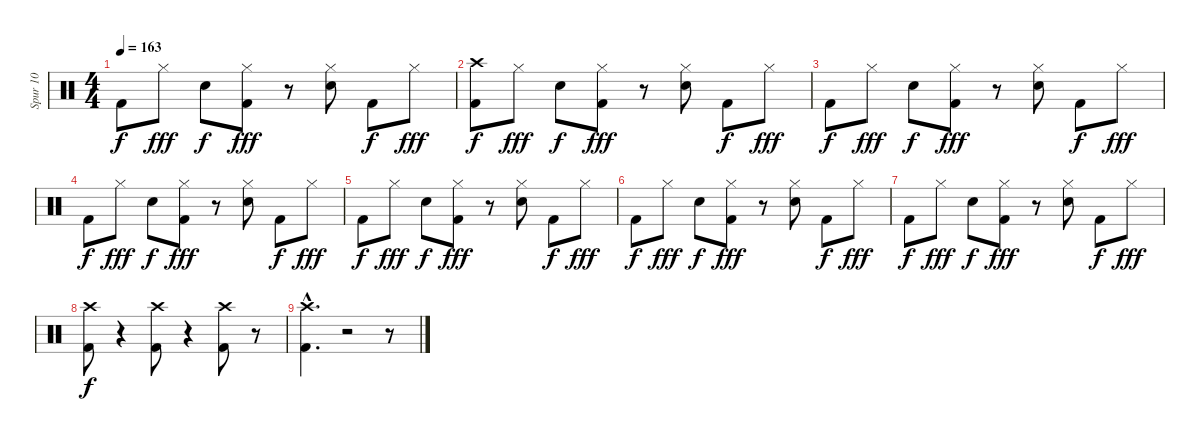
\track ("Spur 10" "Spur 10") {instrument percussion}
\staff {score}
\articulation defaults
\ts (4 4)
\tempo 163
\clef neutral
\ks c "Kick (hit) 2".8{dy f} "Hi-Hat (closed)".8{dy fff} "Snare (hit) 2".8{dy f}
("Hi-Hat (closed)" "Kick (hit) 2").8{dy fff} r.8 ("Hi-Hat (closed)" "Snare (hit) 2").8 "Kick (hit) 2".8{dy f} "Hi-Hat (closed)".8{dy fff} |
("Crash high (hit)" "Kick (hit) 2").8{dy f} "Hi-Hat (closed)".8{dy fff} "Snare (hit) 2".8{dy f} ("Hi-Hat (closed)" "Kick (hit) 2").8{dy fff} r.8 ("Hi-Hat (closed)" "Snare (hit) 2").8 "Kick (hit) 2".8{dy f} "Hi-Hat (closed)".8{dy fff} |
"Kick (hit) 2".8{dy f} "Hi-Hat (closed)".8{dy fff} "Snare (hit) 2".8{dy f} ("Hi-Hat (closed)" "Kick (hit) 2").8{dy fff} r.8 ("Hi-Hat (closed)" "Snare (hit) 2").8 "Kick (hit) 2".8{dy f} "Hi-Hat (closed)".8{dy fff} |
"Kick (hit) 2".8{dy f} "Hi-Hat (closed)".8{dy fff} "Snare (hit) 2".8{dy f} ("Hi-Hat (closed)" "Kick (hit) 2").8{dy fff} r.8 ("Hi-Hat (closed)" "Snare (hit) 2").8 "Kick (hit) 2".8{dy f} "Hi-Hat (closed)".8{dy fff} |
"Kick (hit) 2".8{dy f} "Hi-Hat (closed)".8{dy fff} "Snare (hit) 2".8{dy f} ("Hi-Hat (closed)" "Kick (hit) 2").8{dy fff} r.8 ("Hi-Hat (closed)" "Snare (hit) 2").8 "Kick (hit) 2".8{dy f} "Hi-Hat (closed)".8{dy fff} |
"Kick (hit) 2".8{dy f} "Hi-Hat (closed)".8{dy fff} "Snare (hit) 2".8{dy f} ("Hi-Hat (closed)" "Kick (hit) 2").8{dy fff} r.8 ("Hi-Hat (closed)" "Snare (hit) 2").8 "Kick (hit) 2".8{dy f} "Hi-Hat (closed)".8{dy fff} |
"Kick (hit) 2".8{dy f} "Hi-Hat (closed)".8{dy fff} "Snare (hit) 2".8{dy f} ("Hi-Hat (closed)" "Kick (hit) 2").8{dy fff} r.8 ("Hi-Hat (closed)" "Snare (hit) 2").8 "Kick (hit) 2".8{dy f} "Hi-Hat (closed)".8{dy fff} |
("Crash high (hit)" "Kick (hit) 2").8{dy f} r.4 ("Crash high (hit)" "Kick (hit) 2").8 r.4 ("Crash high (hit)" "Kick (hit) 2").8 r.8 |
("Crash high (hit)"{hac} "Kick (hit) 2"{hac}).4{d} r.2 r.8
